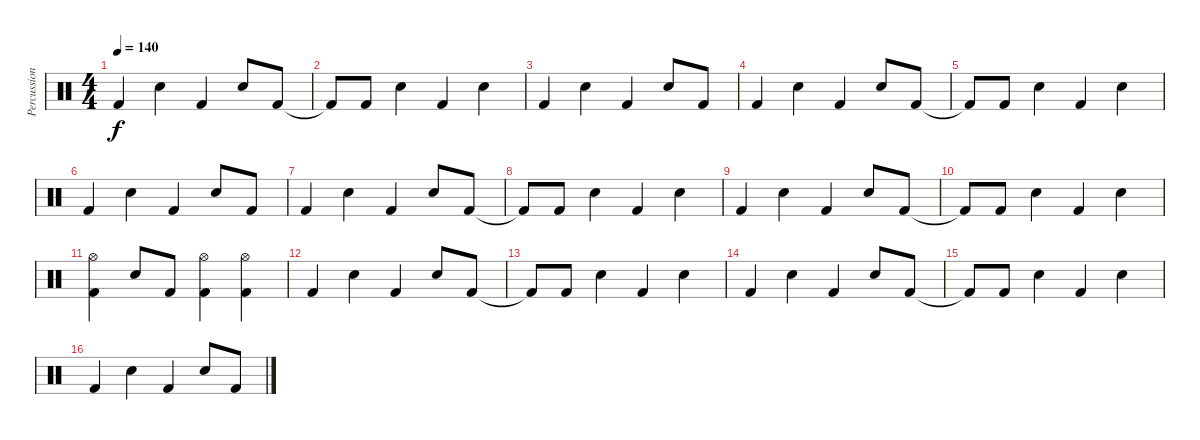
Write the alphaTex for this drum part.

\track ("Percussion" "Percussion") {instrument percussion}
\staff {score}
\articulation defaults
\ts (4 4)
\tempo 140
\clef neutral
\ks c "Kick (hit) 2".4{dy f} "Electric Snare (hit)".4 "Kick (hit) 2".4 "Electric Snare (hit)".8 "Kick (hit) 2".8
|
"Kick (hit) 2"{t}.8 "Kick (hit) 2".8 "Electric Snare (hit)".4 "Kick (hit) 2".4 "Electric Snare (hit)".4 |
"Kick (hit) 2".4 "Electric Snare (hit)".4 "Kick (hit) 2".4 "Electric Snare (hit)".8 "Kick (hit) 2".8 |
"Kick (hit) 2".4 "Electric Snare (hit)".4 "Kick (hit) 2".4 "Electric Snare (hit)".8 "Kick (hit) 2".8 |
"Kick (hit) 2"{t}.8 "Kick (hit) 2".8 "Electric Snare (hit)".4 "Kick (hit) 2".4 "Electric Snare (hit)".4 |
"Kick (hit) 2".4 "Electric Snare (hit)".4 "Kick (hit) 2".4 "Electric Snare (hit)".8 "Kick (hit) 2".8 |
"Kick (hit) 2".4 "Electric Snare (hit)".4 "Kick (hit) 2".4 "Electric Snare (hit)".8 "Kick (hit) 2".8 |
"Kick (hit) 2"{t}.8 "Kick (hit) 2".8 "Electric Snare (hit)".4 "Kick (hit) 2".4 "Electric Snare (hit)".4 |
"Kick (hit) 2".4 "Electric Snare (hit)".4 "Kick (hit) 2".4 "Electric Snare (hit)".8 "Kick (hit) 2".8 |
"Kick (hit) 2"{t}.8 "Kick (hit) 2".8 "Electric Snare (hit)".4 "Kick (hit) 2".4 "Electric Snare (hit)".4 |
("Hi-Hat (open)" "Kick (hit) 2").4 "Electric Snare (hit)".8 "Kick (hit) 2".8 ("Hi-Hat (open)" "Kick (hit) 2").4 ("Hi-Hat (open)" "Kick (hit) 2").4 |
"Kick (hit) 2".4 "Electric Snare (hit)".4 "Kick (hit) 2".4 "Electric Snare (hit)".8 "Kick (hit) 2".8 |
"Kick (hit) 2"{t}.8 "Kick (hit) 2".8 "Electric Snare (hit)".4 "Kick (hit) 2".4 "Electric Snare (hit)".4 |
"Kick (hit) 2".4 "Electric Snare (hit)".4 "Kick (hit) 2".4 "Electric Snare (hit)".8 "Kick (hit) 2".8 |
"Kick (hit) 2"{t}.8 "Kick (hit) 2".8 "Electric Snare (hit)".4 "Kick (hit) 2".4 "Electric Snare (hit)".4 |
"Kick (hit) 2".4 "Electric Snare (hit)".4 "Kick (hit) 2".4 "Electric Snare (hit)".8 "Kick (hit) 2".8
